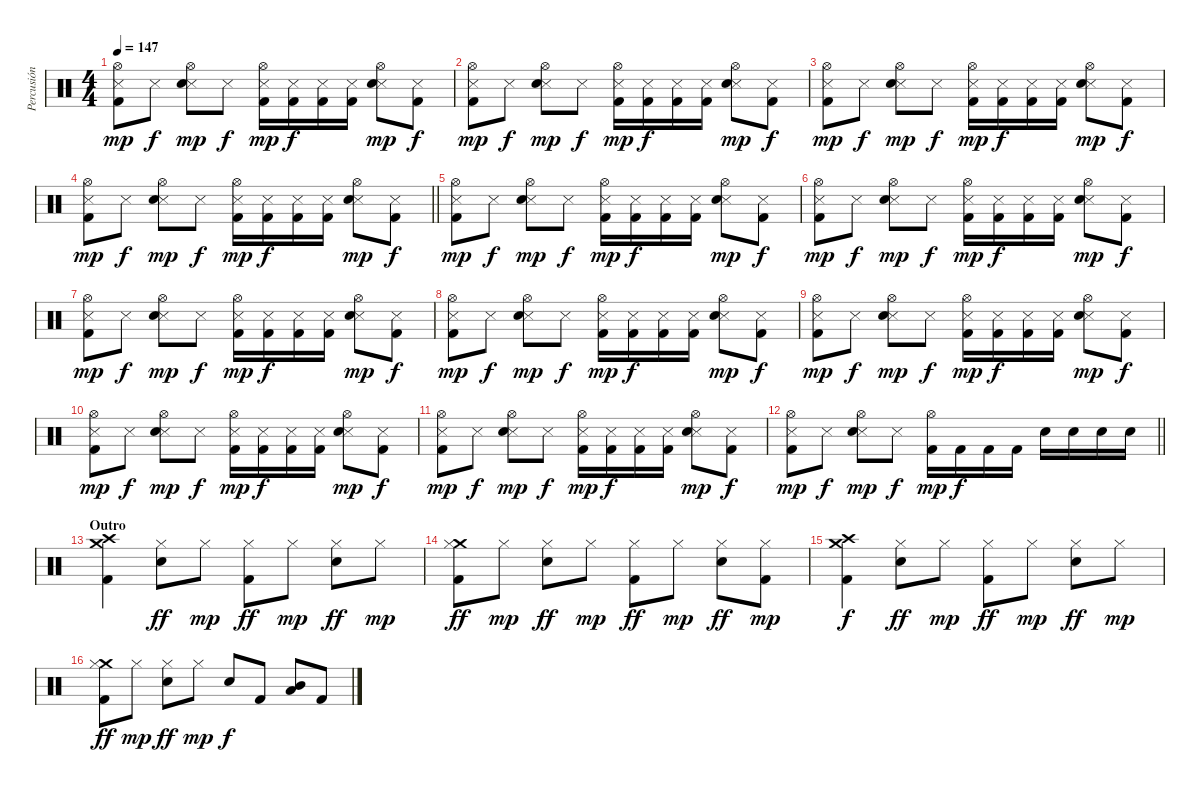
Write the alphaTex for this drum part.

\track ("Percusión" "Percusión") {instrument percussion}
\staff {score}
\articulation defaults
\ts (4 4)
\tempo 147
\clef neutral
\ks c
("Hi-Hat (open)" "Snare (side stick) 3" "Kick (hit) 2").8{dy mp} "Snare (side stick) 3".8{dy f} ("Hi-Hat (open)" "Snare (side stick) 3" "Snare (hit) 2").8{dy mp} "Snare (side stick) 3".8{dy f} ("Hi-Hat (open)" "Snare (side stick) 3" "Kick (hit) 2").16{dy mp} ("Snare (side stick) 3" "Kick (hit) 2").16{dy f} ("Snare (side stick) 3" "Kick (hit) 2").16 ("Snare (side stick) 3" "Kick (hit) 2").16 ("Hi-Hat (open)" "Snare (side stick) 3" "Snare (hit) 2").8{dy mp} ("Snare (side stick) 3" "Kick (hit) 2").8{dy f} |
("Hi-Hat (open)" "Snare (side stick) 3" "Kick (hit) 2").8{dy mp} "Snare (side stick) 3".8{dy f} ("Hi-Hat (open)" "Snare (side stick) 3" "Snare (hit) 2").8{dy mp} "Snare (side stick) 3".8{dy f} ("Hi-Hat (open)" "Snare (side stick) 3" "Kick (hit) 2").16{dy mp} ("Snare (side stick) 3" "Kick (hit) 2").16{dy f} ("Snare (side stick) 3" "Kick (hit) 2").16 ("Snare (side stick) 3" "Kick (hit) 2").16 ("Hi-Hat (open)" "Snare (side stick) 3" "Snare (hit) 2").8{dy mp} ("Snare (side stick) 3" "Kick (hit) 2").8{dy f} |
("Hi-Hat (open)" "Snare (side stick) 3" "Kick (hit) 2").8{dy mp} "Snare (side stick) 3".8{dy f} ("Hi-Hat (open)" "Snare (side stick) 3" "Snare (hit) 2").8{dy mp} "Snare (side stick) 3".8{dy f} ("Hi-Hat (open)" "Snare (side stick) 3" "Kick (hit) 2").16{dy mp} ("Snare (side stick) 3" "Kick (hit) 2").16{dy f} ("Snare (side stick) 3" "Kick (hit) 2").16 ("Snare (side stick) 3" "Kick (hit) 2").16 ("Hi-Hat (open)" "Snare (side stick) 3" "Snare (hit) 2").8{dy mp} ("Snare (side stick) 3" "Kick (hit) 2").8{dy f} |
\barLineRight lightlight
("Hi-Hat (open)" "Snare (side stick) 3" "Kick (hit) 2").8{dy mp} "Snare (side stick) 3".8{dy f} ("Hi-Hat (open)" "Snare (side stick) 3" "Snare (hit) 2").8{dy mp} "Snare (side stick) 3".8{dy f} ("Hi-Hat (open)" "Snare (side stick) 3" "Kick (hit) 2").16{dy mp} ("Snare (side stick) 3" "Kick (hit) 2").16{dy f} ("Snare (side stick) 3" "Kick (hit) 2").16 ("Snare (side stick) 3" "Kick (hit) 2").16 ("Hi-Hat (open)" "Snare (side stick) 3" "Snare (hit) 2").8{dy mp} ("Snare (side stick) 3" "Kick (hit) 2").8{dy f} |
("Hi-Hat (open)" "Snare (side stick) 3" "Kick (hit) 2").8{dy mp} "Snare (side stick) 3".8{dy f} ("Hi-Hat (open)" "Snare (side stick) 3" "Snare (hit) 2").8{dy mp} "Snare (side stick) 3".8{dy f} ("Hi-Hat (open)" "Snare (side stick) 3" "Kick (hit) 2").16{dy mp} ("Snare (side stick) 3" "Kick (hit) 2").16{dy f} ("Snare (side stick) 3" "Kick (hit) 2").16 ("Snare (side stick) 3" "Kick (hit) 2").16 ("Hi-Hat (open)" "Snare (side stick) 3" "Snare (hit) 2").8{dy mp} ("Snare (side stick) 3" "Kick (hit) 2").8{dy f} |
("Hi-Hat (open)" "Snare (side stick) 3" "Kick (hit) 2").8{dy mp} "Snare (side stick) 3".8{dy f} ("Hi-Hat (open)" "Snare (side stick) 3" "Snare (hit) 2").8{dy mp} "Snare (side stick) 3".8{dy f} ("Hi-Hat (open)" "Snare (side stick) 3" "Kick (hit) 2").16{dy mp} ("Snare (side stick) 3" "Kick (hit) 2").16{dy f} ("Snare (side stick) 3" "Kick (hit) 2").16 ("Snare (side stick) 3" "Kick (hit) 2").16 ("Hi-Hat (open)" "Snare (side stick) 3" "Snare (hit) 2").8{dy mp} ("Snare (side stick) 3" "Kick (hit) 2").8{dy f} |
("Hi-Hat (open)" "Snare (side stick) 3" "Kick (hit) 2").8{dy mp} "Snare (side stick) 3".8{dy f} ("Hi-Hat (open)" "Snare (side stick) 3" "Snare (hit) 2").8{dy mp} "Snare (side stick) 3".8{dy f} ("Hi-Hat (open)" "Snare (side stick) 3" "Kick (hit) 2").16{dy mp} ("Snare (side stick) 3" "Kick (hit) 2").16{dy f} ("Snare (side stick) 3" "Kick (hit) 2").16 ("Snare (side stick) 3" "Kick (hit) 2").16 ("Hi-Hat (open)" "Snare (side stick) 3" "Snare (hit) 2").8{dy mp} ("Snare (side stick) 3" "Kick (hit) 2").8{dy f} |
("Hi-Hat (open)" "Snare (side stick) 3" "Kick (hit) 2").8{dy mp} "Snare (side stick) 3".8{dy f} ("Hi-Hat (open)" "Snare (side stick) 3" "Snare (hit) 2").8{dy mp} "Snare (side stick) 3".8{dy f} ("Hi-Hat (open)" "Snare (side stick) 3" "Kick (hit) 2").16{dy mp} ("Snare (side stick) 3" "Kick (hit) 2").16{dy f} ("Snare (side stick) 3" "Kick (hit) 2").16 ("Snare (side stick) 3" "Kick (hit) 2").16 ("Hi-Hat (open)" "Snare (side stick) 3" "Snare (hit) 2").8{dy mp} ("Snare (side stick) 3" "Kick (hit) 2").8{dy f} |
("Hi-Hat (open)" "Snare (side stick) 3" "Kick (hit) 2").8{dy mp} "Snare (side stick) 3".8{dy f} ("Hi-Hat (open)" "Snare (side stick) 3" "Snare (hit) 2").8{dy mp} "Snare (side stick) 3".8{dy f} ("Hi-Hat (open)" "Snare (side stick) 3" "Kick (hit) 2").16{dy mp} ("Snare (side stick) 3" "Kick (hit) 2").16{dy f} ("Snare (side stick) 3" "Kick (hit) 2").16 ("Snare (side stick) 3" "Kick (hit) 2").16 ("Hi-Hat (open)" "Snare (side stick) 3" "Snare (hit) 2").8{dy mp} ("Snare (side stick) 3" "Kick (hit) 2").8{dy f} |
("Hi-Hat (open)" "Snare (side stick) 3" "Kick (hit) 2").8{dy mp} "Snare (side stick) 3".8{dy f} ("Hi-Hat (open)" "Snare (side stick) 3" "Snare (hit) 2").8{dy mp} "Snare (side stick) 3".8{dy f} ("Hi-Hat (open)" "Snare (side stick) 3" "Kick (hit) 2").16{dy mp} ("Snare (side stick) 3" "Kick (hit) 2").16{dy f} ("Snare (side stick) 3" "Kick (hit) 2").16 ("Snare (side stick) 3" "Kick (hit) 2").16 ("Hi-Hat (open)" "Snare (side stick) 3" "Snare (hit) 2").8{dy mp} ("Snare (side stick) 3" "Kick (hit) 2").8{dy f} |
("Hi-Hat (open)" "Snare (side stick) 3" "Kick (hit) 2").8{dy mp} "Snare (side stick) 3".8{dy f} ("Hi-Hat (open)" "Snare (side stick) 3" "Snare (hit) 2").8{dy mp} "Snare (side stick) 3".8{dy f} ("Hi-Hat (open)" "Snare (side stick) 3" "Kick (hit) 2").16{dy mp} ("Snare (side stick) 3" "Kick (hit) 2").16{dy f} ("Snare (side stick) 3" "Kick (hit) 2").16 ("Snare (side stick) 3" "Kick (hit) 2").16 ("Hi-Hat (open)" "Snare (side stick) 3" "Snare (hit) 2").8{dy mp} ("Snare (side stick) 3" "Kick (hit) 2").8{dy f} |
\barLineRight lightlight
("Hi-Hat (open)" "Snare (side stick) 3" "Kick (hit) 2").8{dy mp} "Snare (side stick) 3".8{dy f} ("Hi-Hat (open)" "Snare (side stick) 3" "Snare (hit) 2").8{dy mp} "Snare (side stick) 3".8{dy f} ("Hi-Hat (open)" "Kick (hit) 2").16{dy mp} "Kick (hit) 2".16{dy f} "Kick (hit) 2".16 "Kick (hit) 2".16 "Snare (hit) 2".16 "Snare (hit) 2".16 "Snare (hit) 2".16 "Snare (hit) 2".16 |
\section ("" "Outro")
("Crash high (hit)" "Crash medium (hit)" "Kick (hit) 2").4 ("Hi-Hat (closed)" "Snare (hit) 2").8{dy ff} "Hi-Hat (closed)".8{dy mp} ("Hi-Hat (closed)" "Kick (hit) 2").8{dy ff} "Hi-Hat (closed)".8{dy mp} ("Hi-Hat (closed)" "Snare (hit) 2").8{dy ff} "Hi-Hat (closed)".8{dy mp} |
("Crash medium (hit)" "Hi-Hat (closed)" "Kick (hit) 2").8{dy ff} "Hi-Hat (closed)".8{dy mp} ("Hi-Hat (closed)" "Snare (hit) 2").8{dy ff} "Hi-Hat (closed)".8{dy mp} ("Hi-Hat (closed)" "Kick (hit) 2").8{dy ff} "Hi-Hat (closed)".8{dy mp} ("Hi-Hat (closed)" "Snare (hit) 2").8{dy ff} ("Hi-Hat (closed)" "Kick (hit) 2").8{dy mp} |
("Crash high (hit)" "Crash medium (hit)" "Kick (hit) 2").4{dy f} ("Hi-Hat (closed)" "Snare (hit) 2").8{dy ff} "Hi-Hat (closed)".8{dy mp} ("Hi-Hat (closed)" "Kick (hit) 2").8{dy ff} "Hi-Hat (closed)".8{dy mp} ("Hi-Hat (closed)" "Snare (hit) 2").8{dy ff} "Hi-Hat (closed)".8{dy mp} |
("Crash medium (hit)" "Hi-Hat (closed)" "Kick (hit) 2").8{dy ff} "Hi-Hat (closed)".8{dy mp} ("Hi-Hat (closed)" "Snare (hit) 2").8{dy ff} "Hi-Hat (closed)".8{dy mp} "Snare (hit) 2".8{dy f} "Kick (hit) 2".8 ("Low Tom (hit)" "Mid Tom (hit)").8 "Kick (hit) 2".8
